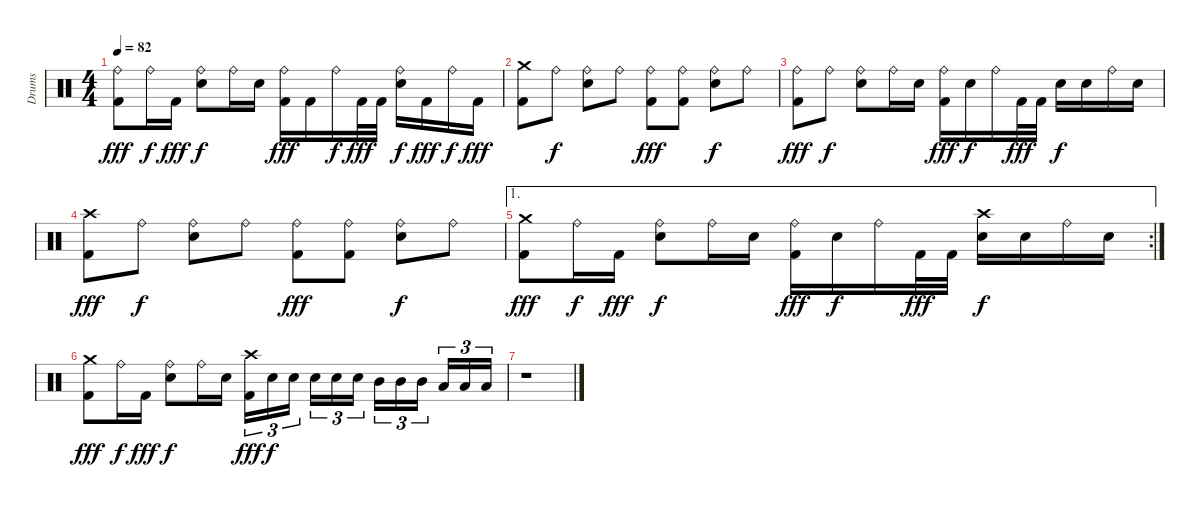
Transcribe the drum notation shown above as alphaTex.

\track ("Drums" "Drums") {instrument percussion}
\staff {score}
\articulation defaults
\ts (4 4)
\tempo 82
\clef neutral
\ks c
("Ride (bell)" "Kick (hit) 2").8{dy fff} "Ride (bell)".16{dy f} "Kick (hit) 2".16{dy fff} ("Ride (bell)" "Snare (hit) 2").8{dy f} "Ride (bell)".16 "Snare (hit) 2".16 ("Ride (bell)" "Kick (hit) 2").16{dy fff} "Kick (hit) 2".16 "Ride (bell)".16{dy f} "Kick (hit) 2".32{dy fff} "Kick (hit) 2".32 ("Ride (bell)" "Snare (hit) 2").16{dy f} "Kick (hit) 2".16{dy fff} "Ride (bell)".16{dy f} "Kick (hit) 2".16{dy fff} |
("Crash medium (hit)" "Kick (hit) 2").8 "Ride (bell)".8{dy f} ("Ride (bell)" "Snare (hit) 2").8 "Ride (bell)".8 ("Ride (bell)" "Kick (hit) 2").8{dy fff} ("Ride (bell)" "Kick (hit) 2").8 ("Ride (bell)" "Snare (hit) 2").8{dy f} "Ride (bell)".8 |
("Ride (bell)" "Kick (hit) 2").8{dy fff} "Ride (bell)".8{dy f} ("Ride (bell)" "Snare (hit) 2").8 "Ride (bell)".16 "Snare (hit) 2".16 ("Ride (bell)" "Kick (hit) 2").16{dy fff} "Snare (hit) 2".16{dy f} "Ride (bell)".16 "Kick (hit) 2".32{dy fff} "Kick (hit) 2".32 "Snare (hit) 2".16{dy f} "Snare (hit) 2".16 "Ride (bell)".16 "Snare (hit) 2".16 |
("Crash high (hit)" "Kick (hit) 2").8{dy fff} "Ride (bell)".8{dy f} ("Ride (bell)" "Snare (hit) 2").8 "Ride (bell)".8 ("Ride (bell)" "Kick (hit) 2").8{dy fff} ("Ride (bell)" "Kick (hit) 2").8 ("Ride (bell)" "Snare (hit) 2").8{dy f} "Ride (bell)".8 |
\ae 1
\rc 2
("Crash medium (hit)" "Kick (hit) 2").8{dy fff} "Ride (bell)".16{dy f} "Kick (hit) 2".16{dy fff} ("Ride (bell)" "Snare (hit) 2").8{dy f} "Ride (bell)".16 "Snare (hit) 2".16 ("Ride (bell)" "Kick (hit) 2").16{dy fff} "Snare (hit) 2".16{dy f} "Ride (bell)".16 "Kick (hit) 2".32{dy fff} "Kick (hit) 2".32 ("Crash high (hit)" "Snare (hit) 2").16{dy f} "Snare (hit) 2".16 "Ride (bell)".16 "Snare (hit) 2".16 |
("Crash medium (hit)" "Kick (hit) 2").8{dy fff} "Ride (bell)".16{dy f} "Kick (hit) 2".16{dy fff} ("Ride (bell)" "Snare (hit) 2").8{dy f} "Ride (bell)".16 "Snare (hit) 2".16 ("Crash high (hit)" "Kick (hit) 2").16{tu (3 2) dy fff} "Snare (hit) 2".16{tu (3 2) dy f} "Snare (hit) 2".16{tu (3 2)} "Snare (hit) 2".16{tu (3 2)} "Snare (hit) 2".16{tu (3 2)} "Snare (hit) 2".16{tu (3 2)} "Mid Tom (hit)".16{tu (3 2)} "Mid Tom (hit)".16{tu (3 2)} "Mid Tom (hit)".16{tu (3 2)} "Low Tom (hit)".16{tu (3 2)} "Low Tom (hit)".16{tu (3 2)} "Low Tom (hit)".16{tu (3 2)} |
r.1
